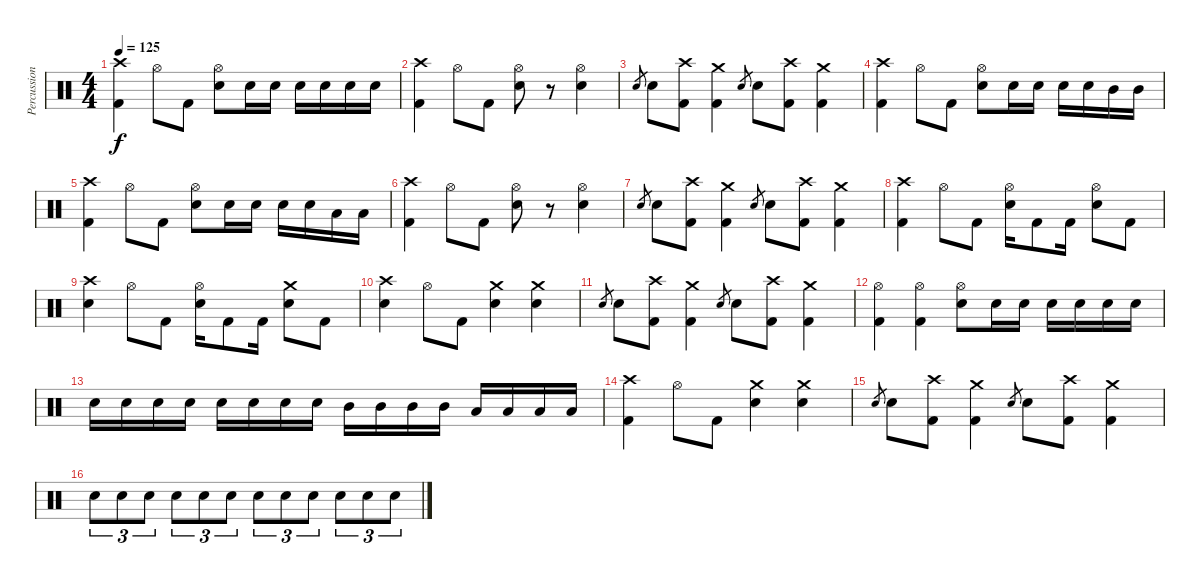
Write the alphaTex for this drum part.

\track ("Percussion" "Percussion") {instrument percussion}
\staff {score}
\articulation defaults
\ts (4 4)
\tempo 125
\clef neutral
\ks c
("Kick (hit) 2" "Crash high (hit)").4{dy f} "Hi-Hat (open)".8 "Kick (hit) 2".8 ("Electric Snare (hit)" "Hi-Hat (open)").8 "Electric Snare (hit)".16 "Electric Snare (hit)".16 "Electric Snare (hit)".16 "Electric Snare (hit)".16 "Electric Snare (hit)".16 "Electric Snare (hit)".16 |
("Kick (hit) 2" "Crash high (hit)").4 "Hi-Hat (open)".8 "Kick (hit) 2".8 ("Electric Snare (hit)" "Hi-Hat (open)").8 r.8 ("Electric Snare (hit)" "Hi-Hat (open)").4 |
"Electric Snare (hit)".8{gr} "Electric Snare (hit)".8 ("Kick (hit) 2" "Crash high (hit)").8 ("Kick (hit) 2" "Crash medium (hit)").4 "Electric Snare (hit)".8{gr} "Electric Snare (hit)".8 ("Kick (hit) 2" "Crash high (hit)").8 ("Kick (hit) 2" "Crash medium (hit)").4 |
("Kick (hit) 2" "Crash high (hit)").4 "Hi-Hat (open)".8 "Kick (hit) 2".8 ("Electric Snare (hit)" "Hi-Hat (open)").8 "Electric Snare (hit)".16 "Electric Snare (hit)".16 "Electric Snare (hit)".16 "Electric Snare (hit)".16 "Mid Tom (hit)".16 "Mid Tom (hit)".16 |
("Kick (hit) 2" "Crash high (hit)").4 "Hi-Hat (open)".8 "Kick (hit) 2".8 ("Electric Snare (hit)" "Hi-Hat (open)").8 "Electric Snare (hit)".16 "Electric Snare (hit)".16 "Electric Snare (hit)".16 "Electric Snare (hit)".16 "Low Tom (hit)".16 "Low Tom (hit)".16 |
("Kick (hit) 2" "Crash high (hit)").4 "Hi-Hat (open)".8 "Kick (hit) 2".8 ("Electric Snare (hit)" "Hi-Hat (open)").8 r.8 ("Electric Snare (hit)" "Hi-Hat (open)").4 |
"Electric Snare (hit)".8{gr} "Electric Snare (hit)".8 ("Kick (hit) 2" "Crash high (hit)").8 ("Kick (hit) 2" "Crash medium (hit)").4 "Electric Snare (hit)".8{gr} "Electric Snare (hit)".8 ("Kick (hit) 2" "Crash high (hit)").8 ("Kick (hit) 2" "Crash medium (hit)").4 |
("Kick (hit) 2" "Crash high (hit)").4 "Hi-Hat (open)".8 "Kick (hit) 2".8 ("Electric Snare (hit)" "Hi-Hat (open)").16 "Kick (hit) 2".8 "Kick (hit) 2".16 ("Electric Snare (hit)" "Hi-Hat (open)").8 "Kick (hit) 2".8 |
("Electric Snare (hit)" "Crash high (hit)").4 "Hi-Hat (open)".8 "Kick (hit) 2".8 ("Electric Snare (hit)" "Hi-Hat (open)").16 "Kick (hit) 2".8 "Kick (hit) 2".16 ("Electric Snare (hit)" "Crash medium (hit)").8 "Kick (hit) 2".8 |
("Electric Snare (hit)" "Crash high (hit)").4 "Hi-Hat (open)".8 "Kick (hit) 2".8 ("Electric Snare (hit)" "Crash medium (hit)").4 ("Electric Snare (hit)" "Crash medium (hit)").4 |
"Electric Snare (hit)".8{gr} "Electric Snare (hit)".8 ("Kick (hit) 2" "Crash high (hit)").8 ("Kick (hit) 2" "Crash medium (hit)").4 "Electric Snare (hit)".8{gr} "Electric Snare (hit)".8 ("Kick (hit) 2" "Crash high (hit)").8 ("Kick (hit) 2" "Crash medium (hit)").4 |
("Kick (hit) 2" "Hi-Hat (open)").4 ("Kick (hit) 2" "Hi-Hat (open)").4 ("Electric Snare (hit)" "Hi-Hat (open)").8 "Electric Snare (hit)".16 "Electric Snare (hit)".16 "Electric Snare (hit)".16 "Electric Snare (hit)".16 "Electric Snare (hit)".16 "Electric Snare (hit)".16 |
"Electric Snare (hit)".16 "Electric Snare (hit)".16 "Electric Snare (hit)".16 "Electric Snare (hit)".16 "Electric Snare (hit)".16 "Electric Snare (hit)".16 "Electric Snare (hit)".16 "Electric Snare (hit)".16 "Mid Tom (hit)".16 "Mid Tom (hit)".16 "Mid Tom (hit)".16 "Mid Tom (hit)".16 "Low Tom (hit)".16 "Low Tom (hit)".16 "Low Tom (hit)".16 "Low Tom (hit)".16 |
("Kick (hit) 2" "Crash high (hit)").4 "Hi-Hat (open)".8 "Kick (hit) 2".8 ("Electric Snare (hit)" "Crash medium (hit)").4 ("Electric Snare (hit)" "Crash medium (hit)").4 |
"Electric Snare (hit)".8{gr} "Electric Snare (hit)".8 ("Kick (hit) 2" "Crash high (hit)").8 ("Kick (hit) 2" "Crash medium (hit)").4 "Electric Snare (hit)".8{gr} "Electric Snare (hit)".8 ("Kick (hit) 2" "Crash high (hit)").8 ("Kick (hit) 2" "Crash medium (hit)").4 |
"Electric Snare (hit)".8{tu (3 2)} "Electric Snare (hit)".8{tu (3 2)} "Electric Snare (hit)".8{tu (3 2)} "Electric Snare (hit)".8{tu (3 2)} "Electric Snare (hit)".8{tu (3 2)} "Electric Snare (hit)".8{tu (3 2)} "Electric Snare (hit)".8{tu (3 2)} "Electric Snare (hit)".8{tu (3 2)} "Electric Snare (hit)".8{tu (3 2)} "Electric Snare (hit)".8{tu (3 2)} "Electric Snare (hit)".8{tu (3 2)} "Electric Snare (hit)".8{tu (3 2)}
